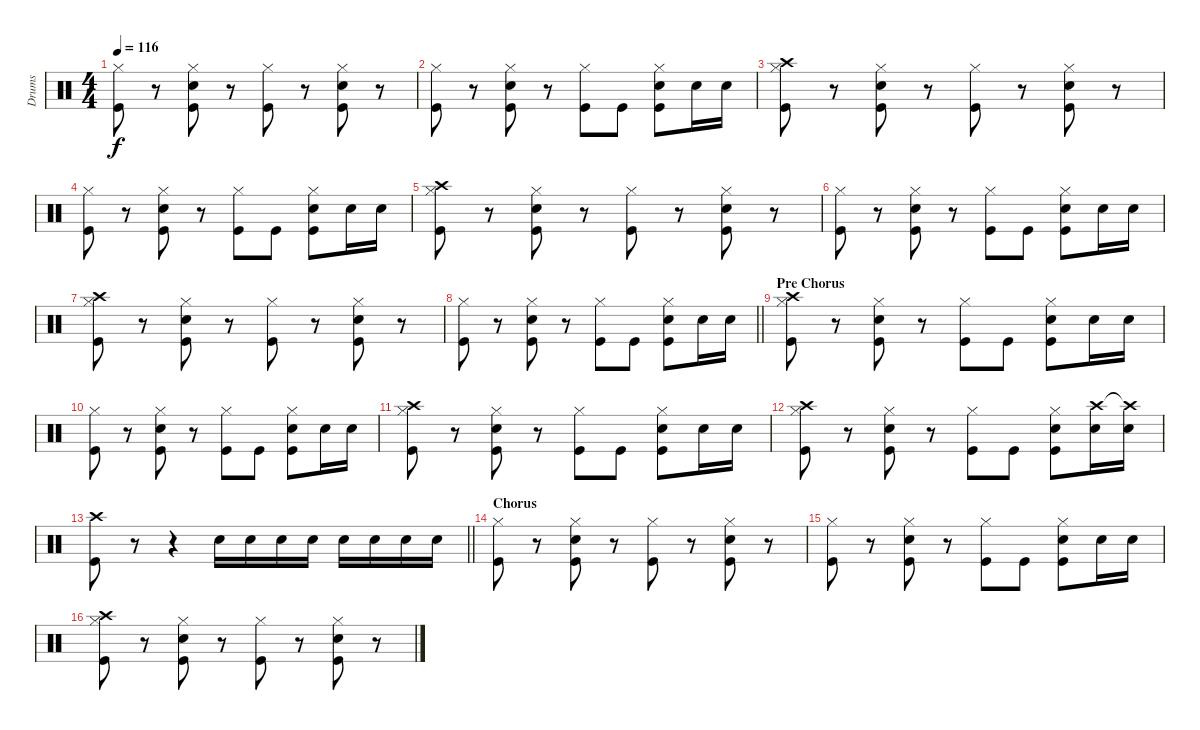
\track ("Drums" "Drums") {instrument percussion}
\staff {score}
\articulation defaults
\ts (4 4)
\tempo 116
\clef neutral
\ks c
("Hi-Hat (closed)" "Kick (hit)").8{dy f} r.8 ("Hi-Hat (closed)" "Snare (hit) 2" "Kick (hit)").8 r.8 ("Hi-Hat (closed)" "Kick (hit)").8 r.8 ("Hi-Hat (closed)" "Snare (hit) 2" "Kick (hit)").8 r.8 |
("Hi-Hat (closed)" "Kick (hit)").8 r.8 ("Hi-Hat (closed)" "Snare (hit) 2" "Kick (hit)").8 r.8 ("Hi-Hat (closed)" "Kick (hit)").8 "Kick (hit)".8 ("Hi-Hat (closed)" "Snare (hit) 2" "Kick (hit)").8 "Snare (hit) 2".16 "Snare (hit) 2".16 |
("Crash high (hit)" "Hi-Hat (closed)" "Kick (hit)").8 r.8 ("Hi-Hat (closed)" "Snare (hit) 2" "Kick (hit)").8 r.8 ("Hi-Hat (closed)" "Kick (hit)").8 r.8 ("Hi-Hat (closed)" "Snare (hit) 2" "Kick (hit)").8 r.8 |
("Hi-Hat (closed)" "Kick (hit)").8 r.8 ("Hi-Hat (closed)" "Snare (hit) 2" "Kick (hit)").8 r.8 ("Hi-Hat (closed)" "Kick (hit)").8 "Kick (hit)".8 ("Hi-Hat (closed)" "Snare (hit) 2" "Kick (hit)").8 "Snare (hit) 2".16 "Snare (hit) 2".16 |
("Crash high (hit)" "Hi-Hat (closed)" "Kick (hit)").8 r.8 ("Hi-Hat (closed)" "Snare (hit) 2" "Kick (hit)").8 r.8 ("Hi-Hat (closed)" "Kick (hit)").8 r.8 ("Hi-Hat (closed)" "Snare (hit) 2" "Kick (hit)").8 r.8 |
("Hi-Hat (closed)" "Kick (hit)").8 r.8 ("Hi-Hat (closed)" "Snare (hit) 2" "Kick (hit)").8 r.8 ("Hi-Hat (closed)" "Kick (hit)").8 "Kick (hit)".8 ("Hi-Hat (closed)" "Snare (hit) 2" "Kick (hit)").8 "Snare (hit) 2".16 "Snare (hit) 2".16 |
("Crash high (hit)" "Hi-Hat (closed)" "Kick (hit)").8 r.8 ("Hi-Hat (closed)" "Snare (hit) 2" "Kick (hit)").8 r.8 ("Hi-Hat (closed)" "Kick (hit)").8 r.8 ("Hi-Hat (closed)" "Snare (hit) 2" "Kick (hit)").8 r.8 |
\barLineRight lightlight
("Hi-Hat (closed)" "Kick (hit)").8 r.8 ("Hi-Hat (closed)" "Snare (hit) 2" "Kick (hit)").8 r.8 ("Hi-Hat (closed)" "Kick (hit)").8 "Kick (hit)".8 ("Hi-Hat (closed)" "Snare (hit) 2" "Kick (hit)").8 "Snare (hit) 2".16 "Snare (hit) 2".16 |
\section ("" "Pre Chorus")
("Crash high (hit)" "Hi-Hat (closed)" "Kick (hit)").8 r.8 ("Hi-Hat (closed)" "Snare (hit) 2" "Kick (hit)").8 r.8 ("Hi-Hat (closed)" "Kick (hit)").8 "Kick (hit)".8 ("Hi-Hat (closed)" "Snare (hit) 2" "Kick (hit)").8 "Snare (hit) 2".16 "Snare (hit) 2".16 |
("Hi-Hat (closed)" "Kick (hit)").8 r.8 ("Hi-Hat (closed)" "Snare (hit) 2" "Kick (hit)").8 r.8 ("Hi-Hat (closed)" "Kick (hit)").8 "Kick (hit)".8 ("Hi-Hat (closed)" "Snare (hit) 2" "Kick (hit)").8 "Snare (hit) 2".16 "Snare (hit) 2".16 |
("Crash high (hit)" "Hi-Hat (closed)" "Kick (hit)").8 r.8 ("Hi-Hat (closed)" "Snare (hit) 2" "Kick (hit)").8 r.8 ("Hi-Hat (closed)" "Kick (hit)").8 "Kick (hit)".8 ("Hi-Hat (closed)" "Snare (hit) 2" "Kick (hit)").8 "Snare (hit) 2".16 "Snare (hit) 2".16 |
("Crash high (hit)" "Hi-Hat (closed)" "Kick (hit)").8 r.8 ("Hi-Hat (closed)" "Snare (hit) 2" "Kick (hit)").8 r.8 ("Hi-Hat (closed)" "Kick (hit)").8 "Kick (hit)".8 ("Hi-Hat (closed)" "Snare (hit) 2" "Kick (hit)").8 ("Crash high (hit)" "Snare (hit) 2").16 ("Crash high (hit)"{t} "Snare (hit) 2").16 |
\barLineRight lightlight
("Crash high (hit)" "Kick (hit)").8 r.8 r.4 "Snare (hit) 2".16 "Snare (hit) 2".16 "Snare (hit) 2".16 "Snare (hit) 2".16 "Snare (hit) 2".16 "Snare (hit) 2".16 "Snare (hit) 2".16 "Snare (hit) 2".16 |
\section ("" "Chorus")
("Hi-Hat (closed)" "Kick (hit)").8 r.8 ("Hi-Hat (closed)" "Snare (hit) 2" "Kick (hit)").8 r.8 ("Hi-Hat (closed)" "Kick (hit)").8 r.8 ("Hi-Hat (closed)" "Snare (hit) 2" "Kick (hit)").8 r.8 |
("Hi-Hat (closed)" "Kick (hit)").8 r.8 ("Hi-Hat (closed)" "Snare (hit) 2" "Kick (hit)").8 r.8 ("Hi-Hat (closed)" "Kick (hit)").8 "Kick (hit)".8 ("Hi-Hat (closed)" "Snare (hit) 2" "Kick (hit)").8 "Snare (hit) 2".16 "Snare (hit) 2".16 |
("Crash high (hit)" "Hi-Hat (closed)" "Kick (hit)").8 r.8 ("Hi-Hat (closed)" "Snare (hit) 2" "Kick (hit)").8 r.8 ("Hi-Hat (closed)" "Kick (hit)").8 r.8 ("Hi-Hat (closed)" "Snare (hit) 2" "Kick (hit)").8 r.8
